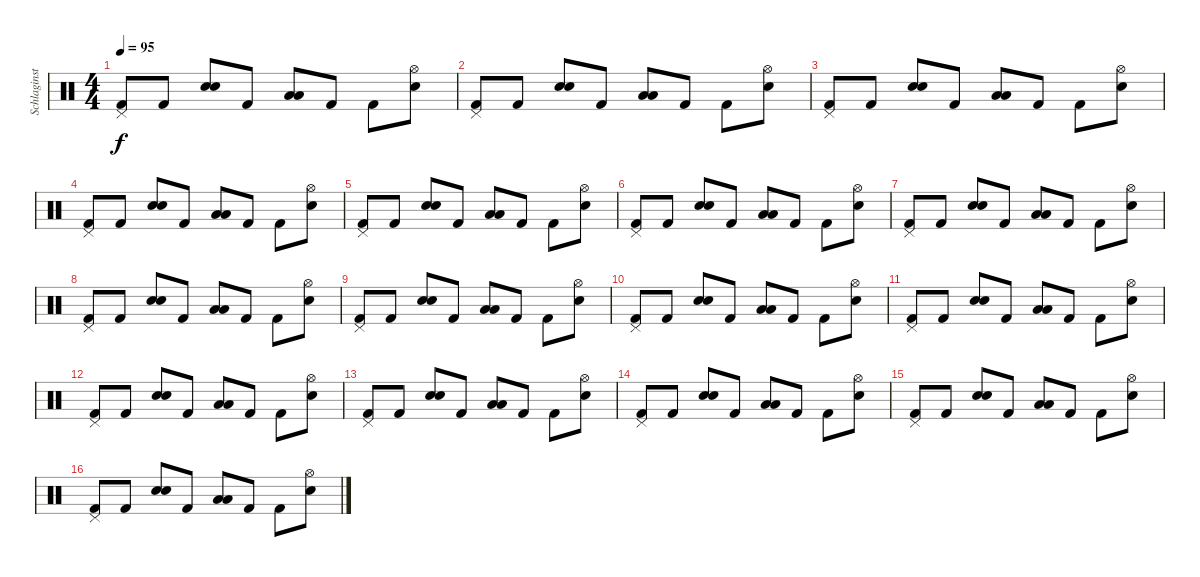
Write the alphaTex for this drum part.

\track ("Schlaginstrumente - Auswahl" "Schlaginst") {instrument percussion}
\staff {score}
\articulation defaults
\ts (4 4)
\tempo 95
\clef neutral
\ks c
("Pedal Hi-Hat (hit)" "Kick (hit) 2").8{dy f} "Kick (hit) 2".8 ("Snare (hit) 2" "Snare (hit) 2").8{bd 240} "Kick (hit) 2".8 ("Low Tom (hit)" "Low Floor Tom (hit)").8 "Kick (hit) 2".8 "Kick (hit) 2".8 ("Hi-Hat (open)" "Snare (hit) 2").8 |
("Pedal Hi-Hat (hit)" "Kick (hit) 2").8 "Kick (hit) 2".8 ("Snare (hit) 2" "Snare (hit) 2").8{bd 240} "Kick (hit) 2".8 ("Low Tom (hit)" "Low Floor Tom (hit)").8 "Kick (hit) 2".8 "Kick (hit) 2".8 ("Hi-Hat (open)" "Snare (hit) 2").8 |
("Pedal Hi-Hat (hit)" "Kick (hit) 2").8 "Kick (hit) 2".8 ("Snare (hit) 2" "Snare (hit) 2").8{bd 240} "Kick (hit) 2".8 ("Low Tom (hit)" "Low Floor Tom (hit)").8 "Kick (hit) 2".8 "Kick (hit) 2".8 ("Hi-Hat (open)" "Snare (hit) 2").8 |
("Pedal Hi-Hat (hit)" "Kick (hit) 2").8 "Kick (hit) 2".8 ("Snare (hit) 2" "Snare (hit) 2").8{bd 240} "Kick (hit) 2".8 ("Low Tom (hit)" "Low Floor Tom (hit)").8 "Kick (hit) 2".8 "Kick (hit) 2".8 ("Hi-Hat (open)" "Snare (hit) 2").8 |
("Pedal Hi-Hat (hit)" "Kick (hit) 2").8 "Kick (hit) 2".8 ("Snare (hit) 2" "Snare (hit) 2").8{bd 240} "Kick (hit) 2".8 ("Low Tom (hit)" "Low Floor Tom (hit)").8 "Kick (hit) 2".8 "Kick (hit) 2".8 ("Hi-Hat (open)" "Snare (hit) 2").8 |
("Pedal Hi-Hat (hit)" "Kick (hit) 2").8 "Kick (hit) 2".8 ("Snare (hit) 2" "Snare (hit) 2").8{bd 240} "Kick (hit) 2".8 ("Low Tom (hit)" "Low Floor Tom (hit)").8 "Kick (hit) 2".8 "Kick (hit) 2".8 ("Hi-Hat (open)" "Snare (hit) 2").8 |
("Pedal Hi-Hat (hit)" "Kick (hit) 2").8 "Kick (hit) 2".8 ("Snare (hit) 2" "Snare (hit) 2").8{bd 240} "Kick (hit) 2".8 ("Low Tom (hit)" "Low Floor Tom (hit)").8 "Kick (hit) 2".8 "Kick (hit) 2".8 ("Hi-Hat (open)" "Snare (hit) 2").8 |
("Pedal Hi-Hat (hit)" "Kick (hit) 2").8 "Kick (hit) 2".8 ("Snare (hit) 2" "Snare (hit) 2").8{bd 240} "Kick (hit) 2".8 ("Low Tom (hit)" "Low Floor Tom (hit)").8 "Kick (hit) 2".8 "Kick (hit) 2".8 ("Hi-Hat (open)" "Snare (hit) 2").8 |
("Pedal Hi-Hat (hit)" "Kick (hit) 2").8 "Kick (hit) 2".8 ("Snare (hit) 2" "Snare (hit) 2").8{bd 240} "Kick (hit) 2".8 ("Low Tom (hit)" "Low Floor Tom (hit)").8 "Kick (hit) 2".8 "Kick (hit) 2".8 ("Hi-Hat (open)" "Snare (hit) 2").8 |
("Pedal Hi-Hat (hit)" "Kick (hit) 2").8 "Kick (hit) 2".8 ("Snare (hit) 2" "Snare (hit) 2").8{bd 240} "Kick (hit) 2".8 ("Low Tom (hit)" "Low Floor Tom (hit)").8 "Kick (hit) 2".8 "Kick (hit) 2".8 ("Hi-Hat (open)" "Snare (hit) 2").8 |
("Pedal Hi-Hat (hit)" "Kick (hit) 2").8 "Kick (hit) 2".8 ("Snare (hit) 2" "Snare (hit) 2").8{bd 240} "Kick (hit) 2".8 ("Low Tom (hit)" "Low Floor Tom (hit)").8 "Kick (hit) 2".8 "Kick (hit) 2".8 ("Hi-Hat (open)" "Snare (hit) 2").8 |
("Pedal Hi-Hat (hit)" "Kick (hit) 2").8 "Kick (hit) 2".8 ("Snare (hit) 2" "Snare (hit) 2").8{bd 240} "Kick (hit) 2".8 ("Low Tom (hit)" "Low Floor Tom (hit)").8 "Kick (hit) 2".8 "Kick (hit) 2".8 ("Hi-Hat (open)" "Snare (hit) 2").8 |
("Pedal Hi-Hat (hit)" "Kick (hit) 2").8 "Kick (hit) 2".8 ("Snare (hit) 2" "Snare (hit) 2").8{bd 240} "Kick (hit) 2".8 ("Low Tom (hit)" "Low Floor Tom (hit)").8 "Kick (hit) 2".8 "Kick (hit) 2".8 ("Hi-Hat (open)" "Snare (hit) 2").8 |
("Pedal Hi-Hat (hit)" "Kick (hit) 2").8 "Kick (hit) 2".8 ("Snare (hit) 2" "Snare (hit) 2").8{bd 240} "Kick (hit) 2".8 ("Low Tom (hit)" "Low Floor Tom (hit)").8 "Kick (hit) 2".8 "Kick (hit) 2".8 ("Hi-Hat (open)" "Snare (hit) 2").8 |
("Pedal Hi-Hat (hit)" "Kick (hit) 2").8 "Kick (hit) 2".8 ("Snare (hit) 2" "Snare (hit) 2").8{bd 240} "Kick (hit) 2".8 ("Low Tom (hit)" "Low Floor Tom (hit)").8 "Kick (hit) 2".8 "Kick (hit) 2".8 ("Hi-Hat (open)" "Snare (hit) 2").8 |
("Pedal Hi-Hat (hit)" "Kick (hit) 2").8 "Kick (hit) 2".8 ("Snare (hit) 2" "Snare (hit) 2").8{bd 240} "Kick (hit) 2".8 ("Low Tom (hit)" "Low Floor Tom (hit)").8 "Kick (hit) 2".8 "Kick (hit) 2".8 ("Hi-Hat (open)" "Snare (hit) 2").8
